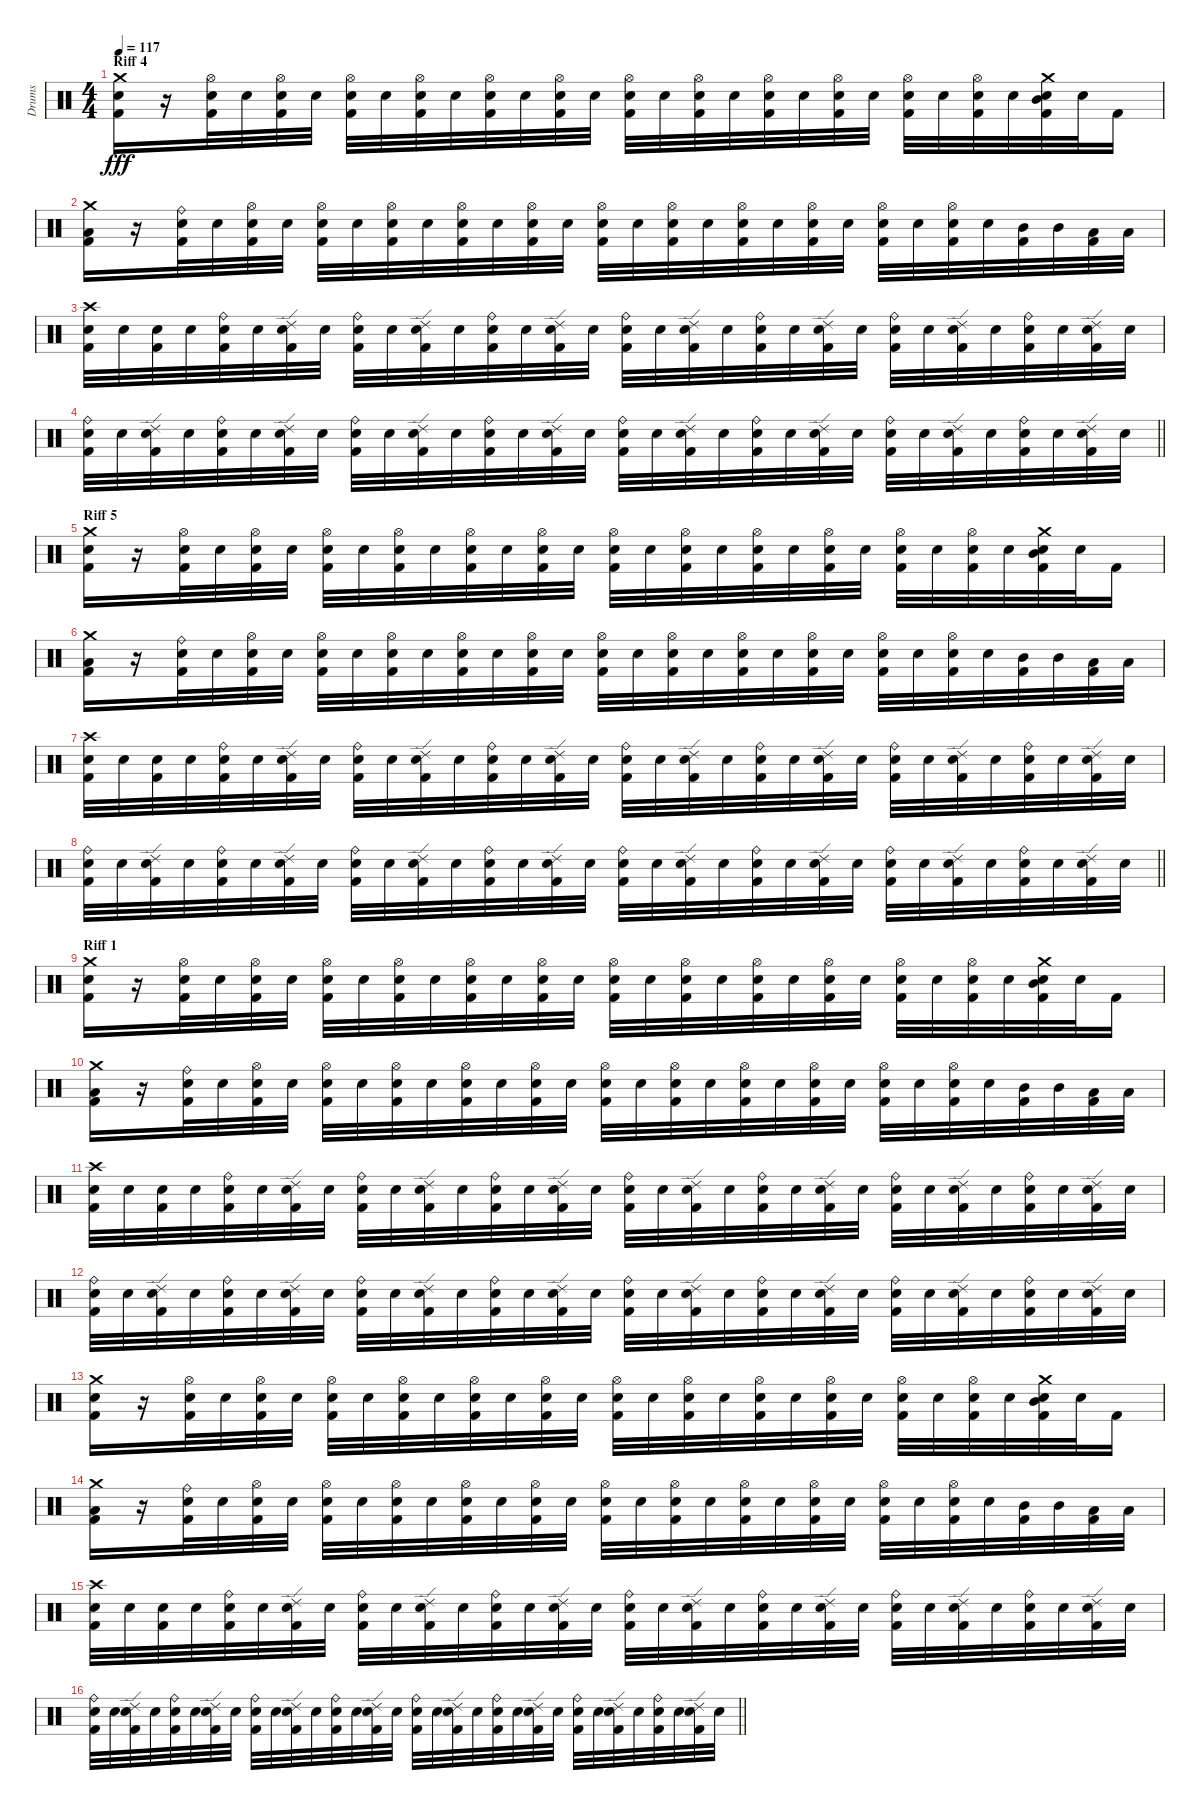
\track ("Drums" "Drums") {instrument percussion}
\staff {score}
\articulation defaults
\ts (4 4)
\section ("" "Riff 4")
\tempo 117
\clef neutral
\ks c
("Kick (hit) 2" "Snare (hit) 2" "Crash medium (hit)").16{dy fff} r.16 ("Kick (hit) 2" "Snare (hit) 2" "Hi-Hat (open)").32 "Snare (hit) 2".32 ("Kick (hit) 2" "Snare (hit) 2" "Hi-Hat (open)").32 "Snare (hit) 2".32 ("Kick (hit) 2" "Snare (hit) 2" "Hi-Hat (open)").32 "Snare (hit) 2".32 ("Kick (hit) 2" "Snare (hit) 2" "Hi-Hat (open)").32 "Snare (hit) 2".32 ("Kick (hit) 2" "Snare (hit) 2" "Hi-Hat (open)").32 "Snare (hit) 2".32 ("Kick (hit) 2" "Snare (hit) 2" "Hi-Hat (open)").32 "Snare (hit) 2".32 ("Kick (hit) 2" "Snare (hit) 2" "Hi-Hat (open)").32 "Snare (hit) 2".32 ("Kick (hit) 2" "Snare (hit) 2" "Hi-Hat (open)").32 "Snare (hit) 2".32 ("Kick (hit) 2" "Snare (hit) 2" "Hi-Hat (open)").32 "Snare (hit) 2".32 ("Kick (hit) 2" "Snare (hit) 2" "Hi-Hat (open)").32 "Snare (hit) 2".32 ("Kick (hit) 2" "Snare (hit) 2" "Hi-Hat (open)").32 "Snare (hit) 2".32 ("Kick (hit) 2" "Snare (hit) 2" "Hi-Hat (open)").32 "Snare (hit) 2".32 ("Kick (hit) 2" "Snare (hit) 2" "Mid Tom (hit)" "Crash medium (hit)").32 "Snare (hit) 2".32 "Kick (hit) 2".16 |
("Kick (hit) 2" "Low Tom (hit)" "Crash medium (hit)").16 r.16 ("Kick (hit) 2" "Snare (hit) 2" "Ride (bell)").32 "Snare (hit) 2".32 ("Kick (hit) 2" "Snare (hit) 2" "Hi-Hat (open)").32 "Snare (hit) 2".32 ("Kick (hit) 2" "Snare (hit) 2" "Hi-Hat (open)").32 "Snare (hit) 2".32 ("Kick (hit) 2" "Snare (hit) 2" "Hi-Hat (open)").32 "Snare (hit) 2".32 ("Kick (hit) 2" "Snare (hit) 2" "Hi-Hat (open)").32 "Snare (hit) 2".32 ("Kick (hit) 2" "Snare (hit) 2" "Hi-Hat (open)").32 "Snare (hit) 2".32 ("Kick (hit) 2" "Snare (hit) 2" "Hi-Hat (open)").32 "Snare (hit) 2".32 ("Kick (hit) 2" "Snare (hit) 2" "Hi-Hat (open)").32 "Snare (hit) 2".32 ("Kick (hit) 2" "Snare (hit) 2" "Hi-Hat (open)").32 "Snare (hit) 2".32 ("Kick (hit) 2" "Snare (hit) 2" "Hi-Hat (open)").32 "Snare (hit) 2".32 ("Kick (hit) 2" "Snare (hit) 2" "Hi-Hat (open)").32 "Snare (hit) 2".32 ("Kick (hit) 2" "Snare (hit) 2" "Hi-Hat (open)").32 "Snare (hit) 2".32 ("Kick (hit) 2" "Mid Tom (hit)").32 "Mid Tom (hit)".32 ("Kick (hit) 2" "Low Tom (hit)").32 "Low Tom (hit)".32 |
("Kick (hit) 2" "Snare (hit) 2" "Crash high (hit)").32 "Snare (hit) 2".32 ("Kick (hit) 2" "Snare (hit) 2").32 "Snare (hit) 2".32 ("Kick (hit) 2" "Snare (hit) 2" "Ride (bell)").32 "Snare (hit) 2".32 ("Kick (hit) 2" "Snare (hit) 2" "Ride (edge) 2").32 "Snare (hit) 2".32 ("Kick (hit) 2" "Snare (hit) 2" "Ride (bell)").32 "Snare (hit) 2".32 ("Kick (hit) 2" "Snare (hit) 2" "Ride (edge) 2").32 "Snare (hit) 2".32 ("Kick (hit) 2" "Snare (hit) 2" "Ride (bell)").32 "Snare (hit) 2".32 ("Kick (hit) 2" "Snare (hit) 2" "Ride (edge) 2").32 "Snare (hit) 2".32 ("Kick (hit) 2" "Snare (hit) 2" "Ride (bell)").32 "Snare (hit) 2".32 ("Kick (hit) 2" "Snare (hit) 2" "Ride (edge) 2").32 "Snare (hit) 2".32 ("Kick (hit) 2" "Snare (hit) 2" "Ride (bell)").32 "Snare (hit) 2".32 ("Kick (hit) 2" "Snare (hit) 2" "Ride (edge) 2").32 "Snare (hit) 2".32 ("Kick (hit) 2" "Snare (hit) 2" "Ride (bell)").32 "Snare (hit) 2".32 ("Kick (hit) 2" "Snare (hit) 2" "Ride (edge) 2").32 "Snare (hit) 2".32 ("Kick (hit) 2" "Snare (hit) 2" "Ride (bell)").32 "Snare (hit) 2".32 ("Kick (hit) 2" "Snare (hit) 2" "Ride (edge) 2").32 "Snare (hit) 2".32 |
\barLineRight lightlight
("Kick (hit) 2" "Snare (hit) 2" "Ride (bell)").32 "Snare (hit) 2".32 ("Kick (hit) 2" "Snare (hit) 2" "Ride (edge) 2").32 "Snare (hit) 2".32 ("Kick (hit) 2" "Snare (hit) 2" "Ride (bell)").32 "Snare (hit) 2".32 ("Kick (hit) 2" "Snare (hit) 2" "Ride (edge) 2").32 "Snare (hit) 2".32 ("Kick (hit) 2" "Snare (hit) 2" "Ride (bell)").32 "Snare (hit) 2".32 ("Kick (hit) 2" "Snare (hit) 2" "Ride (edge) 2").32 "Snare (hit) 2".32 ("Kick (hit) 2" "Snare (hit) 2" "Ride (bell)").32 "Snare (hit) 2".32 ("Kick (hit) 2" "Snare (hit) 2" "Ride (edge) 2").32 "Snare (hit) 2".32 ("Kick (hit) 2" "Snare (hit) 2" "Ride (bell)").32 "Snare (hit) 2".32 ("Kick (hit) 2" "Snare (hit) 2" "Ride (edge) 2").32 "Snare (hit) 2".32 ("Kick (hit) 2" "Snare (hit) 2" "Ride (bell)").32 "Snare (hit) 2".32 ("Kick (hit) 2" "Snare (hit) 2" "Ride (edge) 2").32 "Snare (hit) 2".32 ("Kick (hit) 2" "Snare (hit) 2" "Ride (bell)").32 "Snare (hit) 2".32 ("Kick (hit) 2" "Snare (hit) 2" "Ride (edge) 2").32 "Snare (hit) 2".32 ("Kick (hit) 2" "Snare (hit) 2" "Ride (bell)").32 "Snare (hit) 2".32 ("Kick (hit) 2" "Snare (hit) 2" "Ride (edge) 2").32 "Snare (hit) 2".32 |
\section ("" "Riff 5")
("Kick (hit) 2" "Snare (hit) 2" "Crash medium (hit)").16 r.16 ("Kick (hit) 2" "Snare (hit) 2" "Hi-Hat (open)").32 "Snare (hit) 2".32 ("Kick (hit) 2" "Snare (hit) 2" "Hi-Hat (open)").32 "Snare (hit) 2".32 ("Kick (hit) 2" "Snare (hit) 2" "Hi-Hat (open)").32 "Snare (hit) 2".32 ("Kick (hit) 2" "Snare (hit) 2" "Hi-Hat (open)").32 "Snare (hit) 2".32 ("Kick (hit) 2" "Snare (hit) 2" "Hi-Hat (open)").32 "Snare (hit) 2".32 ("Kick (hit) 2" "Snare (hit) 2" "Hi-Hat (open)").32 "Snare (hit) 2".32 ("Kick (hit) 2" "Snare (hit) 2" "Hi-Hat (open)").32 "Snare (hit) 2".32 ("Kick (hit) 2" "Snare (hit) 2" "Hi-Hat (open)").32 "Snare (hit) 2".32 ("Kick (hit) 2" "Snare (hit) 2" "Hi-Hat (open)").32 "Snare (hit) 2".32 ("Kick (hit) 2" "Snare (hit) 2" "Hi-Hat (open)").32 "Snare (hit) 2".32 ("Kick (hit) 2" "Snare (hit) 2" "Hi-Hat (open)").32 "Snare (hit) 2".32 ("Kick (hit) 2" "Snare (hit) 2" "Hi-Hat (open)").32 "Snare (hit) 2".32 ("Kick (hit) 2" "Snare (hit) 2" "Mid Tom (hit)" "Crash medium (hit)").32 "Snare (hit) 2".32 "Kick (hit) 2".16 |
("Kick (hit) 2" "Low Tom (hit)" "Crash medium (hit)").16 r.16 ("Kick (hit) 2" "Snare (hit) 2" "Ride (bell)").32 "Snare (hit) 2".32 ("Kick (hit) 2" "Snare (hit) 2" "Hi-Hat (open)").32 "Snare (hit) 2".32 ("Kick (hit) 2" "Snare (hit) 2" "Hi-Hat (open)").32 "Snare (hit) 2".32 ("Kick (hit) 2" "Snare (hit) 2" "Hi-Hat (open)").32 "Snare (hit) 2".32 ("Kick (hit) 2" "Snare (hit) 2" "Hi-Hat (open)").32 "Snare (hit) 2".32 ("Kick (hit) 2" "Snare (hit) 2" "Hi-Hat (open)").32 "Snare (hit) 2".32 ("Kick (hit) 2" "Snare (hit) 2" "Hi-Hat (open)").32 "Snare (hit) 2".32 ("Kick (hit) 2" "Snare (hit) 2" "Hi-Hat (open)").32 "Snare (hit) 2".32 ("Kick (hit) 2" "Snare (hit) 2" "Hi-Hat (open)").32 "Snare (hit) 2".32 ("Kick (hit) 2" "Snare (hit) 2" "Hi-Hat (open)").32 "Snare (hit) 2".32 ("Kick (hit) 2" "Snare (hit) 2" "Hi-Hat (open)").32 "Snare (hit) 2".32 ("Kick (hit) 2" "Snare (hit) 2" "Hi-Hat (open)").32 "Snare (hit) 2".32 ("Kick (hit) 2" "Mid Tom (hit)").32 "Mid Tom (hit)".32 ("Kick (hit) 2" "Low Tom (hit)").32 "Low Tom (hit)".32 |
("Kick (hit) 2" "Snare (hit) 2" "Crash high (hit)").32 "Snare (hit) 2".32 ("Kick (hit) 2" "Snare (hit) 2").32 "Snare (hit) 2".32 ("Kick (hit) 2" "Snare (hit) 2" "Ride (bell)").32 "Snare (hit) 2".32 ("Kick (hit) 2" "Snare (hit) 2" "Ride (edge) 2").32 "Snare (hit) 2".32 ("Kick (hit) 2" "Snare (hit) 2" "Ride (bell)").32 "Snare (hit) 2".32 ("Kick (hit) 2" "Snare (hit) 2" "Ride (edge) 2").32 "Snare (hit) 2".32 ("Kick (hit) 2" "Snare (hit) 2" "Ride (bell)").32 "Snare (hit) 2".32 ("Kick (hit) 2" "Snare (hit) 2" "Ride (edge) 2").32 "Snare (hit) 2".32 ("Kick (hit) 2" "Snare (hit) 2" "Ride (bell)").32 "Snare (hit) 2".32 ("Kick (hit) 2" "Snare (hit) 2" "Ride (edge) 2").32 "Snare (hit) 2".32 ("Kick (hit) 2" "Snare (hit) 2" "Ride (bell)").32 "Snare (hit) 2".32 ("Kick (hit) 2" "Snare (hit) 2" "Ride (edge) 2").32 "Snare (hit) 2".32 ("Kick (hit) 2" "Snare (hit) 2" "Ride (bell)").32 "Snare (hit) 2".32 ("Kick (hit) 2" "Snare (hit) 2" "Ride (edge) 2").32 "Snare (hit) 2".32 ("Kick (hit) 2" "Snare (hit) 2" "Ride (bell)").32 "Snare (hit) 2".32 ("Kick (hit) 2" "Snare (hit) 2" "Ride (edge) 2").32 "Snare (hit) 2".32 |
\barLineRight lightlight
("Kick (hit) 2" "Snare (hit) 2" "Ride (bell)").32 "Snare (hit) 2".32 ("Kick (hit) 2" "Snare (hit) 2" "Ride (edge) 2").32 "Snare (hit) 2".32 ("Kick (hit) 2" "Snare (hit) 2" "Ride (bell)").32 "Snare (hit) 2".32 ("Kick (hit) 2" "Snare (hit) 2" "Ride (edge) 2").32 "Snare (hit) 2".32 ("Kick (hit) 2" "Snare (hit) 2" "Ride (bell)").32 "Snare (hit) 2".32 ("Kick (hit) 2" "Snare (hit) 2" "Ride (edge) 2").32 "Snare (hit) 2".32 ("Kick (hit) 2" "Snare (hit) 2" "Ride (bell)").32 "Snare (hit) 2".32 ("Kick (hit) 2" "Snare (hit) 2" "Ride (edge) 2").32 "Snare (hit) 2".32 ("Kick (hit) 2" "Snare (hit) 2" "Ride (bell)").32 "Snare (hit) 2".32 ("Kick (hit) 2" "Snare (hit) 2" "Ride (edge) 2").32 "Snare (hit) 2".32 ("Kick (hit) 2" "Snare (hit) 2" "Ride (bell)").32 "Snare (hit) 2".32 ("Kick (hit) 2" "Snare (hit) 2" "Ride (edge) 2").32 "Snare (hit) 2".32 ("Kick (hit) 2" "Snare (hit) 2" "Ride (bell)").32 "Snare (hit) 2".32 ("Kick (hit) 2" "Snare (hit) 2" "Ride (edge) 2").32 "Snare (hit) 2".32 ("Kick (hit) 2" "Snare (hit) 2" "Ride (bell)").32 "Snare (hit) 2".32 ("Kick (hit) 2" "Snare (hit) 2" "Ride (edge) 2").32 "Snare (hit) 2".32 |
\section ("" "Riff 1")
("Kick (hit) 2" "Snare (hit) 2" "Crash medium (hit)").16 r.16 ("Kick (hit) 2" "Snare (hit) 2" "Hi-Hat (open)").32 "Snare (hit) 2".32 ("Kick (hit) 2" "Snare (hit) 2" "Hi-Hat (open)").32 "Snare (hit) 2".32 ("Kick (hit) 2" "Snare (hit) 2" "Hi-Hat (open)").32 "Snare (hit) 2".32 ("Kick (hit) 2" "Snare (hit) 2" "Hi-Hat (open)").32 "Snare (hit) 2".32 ("Kick (hit) 2" "Snare (hit) 2" "Hi-Hat (open)").32 "Snare (hit) 2".32 ("Kick (hit) 2" "Snare (hit) 2" "Hi-Hat (open)").32 "Snare (hit) 2".32 ("Kick (hit) 2" "Snare (hit) 2" "Hi-Hat (open)").32 "Snare (hit) 2".32 ("Kick (hit) 2" "Snare (hit) 2" "Hi-Hat (open)").32 "Snare (hit) 2".32 ("Kick (hit) 2" "Snare (hit) 2" "Hi-Hat (open)").32 "Snare (hit) 2".32 ("Kick (hit) 2" "Snare (hit) 2" "Hi-Hat (open)").32 "Snare (hit) 2".32 ("Kick (hit) 2" "Snare (hit) 2" "Hi-Hat (open)").32 "Snare (hit) 2".32 ("Kick (hit) 2" "Snare (hit) 2" "Hi-Hat (open)").32 "Snare (hit) 2".32 ("Kick (hit) 2" "Snare (hit) 2" "Mid Tom (hit)" "Crash medium (hit)").32 "Snare (hit) 2".32 "Kick (hit) 2".16 |
("Kick (hit) 2" "Low Tom (hit)" "Crash medium (hit)").16 r.16 ("Kick (hit) 2" "Snare (hit) 2" "Ride (bell)").32 "Snare (hit) 2".32 ("Kick (hit) 2" "Snare (hit) 2" "Hi-Hat (open)").32 "Snare (hit) 2".32 ("Kick (hit) 2" "Snare (hit) 2" "Hi-Hat (open)").32 "Snare (hit) 2".32 ("Kick (hit) 2" "Snare (hit) 2" "Hi-Hat (open)").32 "Snare (hit) 2".32 ("Kick (hit) 2" "Snare (hit) 2" "Hi-Hat (open)").32 "Snare (hit) 2".32 ("Kick (hit) 2" "Snare (hit) 2" "Hi-Hat (open)").32 "Snare (hit) 2".32 ("Kick (hit) 2" "Snare (hit) 2" "Hi-Hat (open)").32 "Snare (hit) 2".32 ("Kick (hit) 2" "Snare (hit) 2" "Hi-Hat (open)").32 "Snare (hit) 2".32 ("Kick (hit) 2" "Snare (hit) 2" "Hi-Hat (open)").32 "Snare (hit) 2".32 ("Kick (hit) 2" "Snare (hit) 2" "Hi-Hat (open)").32 "Snare (hit) 2".32 ("Kick (hit) 2" "Snare (hit) 2" "Hi-Hat (open)").32 "Snare (hit) 2".32 ("Kick (hit) 2" "Snare (hit) 2" "Hi-Hat (open)").32 "Snare (hit) 2".32 ("Kick (hit) 2" "Mid Tom (hit)").32 "Mid Tom (hit)".32 ("Kick (hit) 2" "Low Tom (hit)").32 "Low Tom (hit)".32 |
("Kick (hit) 2" "Snare (hit) 2" "Crash high (hit)").32 "Snare (hit) 2".32 ("Kick (hit) 2" "Snare (hit) 2").32 "Snare (hit) 2".32 ("Kick (hit) 2" "Snare (hit) 2" "Ride (bell)").32 "Snare (hit) 2".32 ("Kick (hit) 2" "Snare (hit) 2" "Ride (edge) 2").32 "Snare (hit) 2".32 ("Kick (hit) 2" "Snare (hit) 2" "Ride (bell)").32 "Snare (hit) 2".32 ("Kick (hit) 2" "Snare (hit) 2" "Ride (edge) 2").32 "Snare (hit) 2".32 ("Kick (hit) 2" "Snare (hit) 2" "Ride (bell)").32 "Snare (hit) 2".32 ("Kick (hit) 2" "Snare (hit) 2" "Ride (edge) 2").32 "Snare (hit) 2".32 ("Kick (hit) 2" "Snare (hit) 2" "Ride (bell)").32 "Snare (hit) 2".32 ("Kick (hit) 2" "Snare (hit) 2" "Ride (edge) 2").32 "Snare (hit) 2".32 ("Kick (hit) 2" "Snare (hit) 2" "Ride (bell)").32 "Snare (hit) 2".32 ("Kick (hit) 2" "Snare (hit) 2" "Ride (edge) 2").32 "Snare (hit) 2".32 ("Kick (hit) 2" "Snare (hit) 2" "Ride (bell)").32 "Snare (hit) 2".32 ("Kick (hit) 2" "Snare (hit) 2" "Ride (edge) 2").32 "Snare (hit) 2".32 ("Kick (hit) 2" "Snare (hit) 2" "Ride (bell)").32 "Snare (hit) 2".32 ("Kick (hit) 2" "Snare (hit) 2" "Ride (edge) 2").32 "Snare (hit) 2".32 |
("Kick (hit) 2" "Snare (hit) 2" "Ride (bell)").32 "Snare (hit) 2".32 ("Kick (hit) 2" "Snare (hit) 2" "Ride (edge) 2").32 "Snare (hit) 2".32 ("Kick (hit) 2" "Snare (hit) 2" "Ride (bell)").32 "Snare (hit) 2".32 ("Kick (hit) 2" "Snare (hit) 2" "Ride (edge) 2").32 "Snare (hit) 2".32 ("Kick (hit) 2" "Snare (hit) 2" "Ride (bell)").32 "Snare (hit) 2".32 ("Kick (hit) 2" "Snare (hit) 2" "Ride (edge) 2").32 "Snare (hit) 2".32 ("Kick (hit) 2" "Snare (hit) 2" "Ride (bell)").32 "Snare (hit) 2".32 ("Kick (hit) 2" "Snare (hit) 2" "Ride (edge) 2").32 "Snare (hit) 2".32 ("Kick (hit) 2" "Snare (hit) 2" "Ride (bell)").32 "Snare (hit) 2".32 ("Kick (hit) 2" "Snare (hit) 2" "Ride (edge) 2").32 "Snare (hit) 2".32 ("Kick (hit) 2" "Snare (hit) 2" "Ride (bell)").32 "Snare (hit) 2".32 ("Kick (hit) 2" "Snare (hit) 2" "Ride (edge) 2").32 "Snare (hit) 2".32 ("Kick (hit) 2" "Snare (hit) 2" "Ride (bell)").32 "Snare (hit) 2".32 ("Kick (hit) 2" "Snare (hit) 2" "Ride (edge) 2").32 "Snare (hit) 2".32 ("Kick (hit) 2" "Snare (hit) 2" "Ride (bell)").32 "Snare (hit) 2".32 ("Kick (hit) 2" "Snare (hit) 2" "Ride (edge) 2").32 "Snare (hit) 2".32 |
("Kick (hit) 2" "Snare (hit) 2" "Crash medium (hit)").16 r.16 ("Kick (hit) 2" "Snare (hit) 2" "Hi-Hat (open)").32 "Snare (hit) 2".32 ("Kick (hit) 2" "Snare (hit) 2" "Hi-Hat (open)").32 "Snare (hit) 2".32 ("Kick (hit) 2" "Snare (hit) 2" "Hi-Hat (open)").32 "Snare (hit) 2".32 ("Kick (hit) 2" "Snare (hit) 2" "Hi-Hat (open)").32 "Snare (hit) 2".32 ("Kick (hit) 2" "Snare (hit) 2" "Hi-Hat (open)").32 "Snare (hit) 2".32 ("Kick (hit) 2" "Snare (hit) 2" "Hi-Hat (open)").32 "Snare (hit) 2".32 ("Kick (hit) 2" "Snare (hit) 2" "Hi-Hat (open)").32 "Snare (hit) 2".32 ("Kick (hit) 2" "Snare (hit) 2" "Hi-Hat (open)").32 "Snare (hit) 2".32 ("Kick (hit) 2" "Snare (hit) 2" "Hi-Hat (open)").32 "Snare (hit) 2".32 ("Kick (hit) 2" "Snare (hit) 2" "Hi-Hat (open)").32 "Snare (hit) 2".32 ("Kick (hit) 2" "Snare (hit) 2" "Hi-Hat (open)").32 "Snare (hit) 2".32 ("Kick (hit) 2" "Snare (hit) 2" "Hi-Hat (open)").32 "Snare (hit) 2".32 ("Kick (hit) 2" "Snare (hit) 2" "Mid Tom (hit)" "Crash medium (hit)").32 "Snare (hit) 2".32 "Kick (hit) 2".16 |
("Kick (hit) 2" "Low Tom (hit)" "Crash medium (hit)").16 r.16 ("Kick (hit) 2" "Snare (hit) 2" "Ride (bell)").32 "Snare (hit) 2".32 ("Kick (hit) 2" "Snare (hit) 2" "Hi-Hat (open)").32 "Snare (hit) 2".32 ("Kick (hit) 2" "Snare (hit) 2" "Hi-Hat (open)").32 "Snare (hit) 2".32 ("Kick (hit) 2" "Snare (hit) 2" "Hi-Hat (open)").32 "Snare (hit) 2".32 ("Kick (hit) 2" "Snare (hit) 2" "Hi-Hat (open)").32 "Snare (hit) 2".32 ("Kick (hit) 2" "Snare (hit) 2" "Hi-Hat (open)").32 "Snare (hit) 2".32 ("Kick (hit) 2" "Snare (hit) 2" "Hi-Hat (open)").32 "Snare (hit) 2".32 ("Kick (hit) 2" "Snare (hit) 2" "Hi-Hat (open)").32 "Snare (hit) 2".32 ("Kick (hit) 2" "Snare (hit) 2" "Hi-Hat (open)").32 "Snare (hit) 2".32 ("Kick (hit) 2" "Snare (hit) 2" "Hi-Hat (open)").32 "Snare (hit) 2".32 ("Kick (hit) 2" "Snare (hit) 2" "Hi-Hat (open)").32 "Snare (hit) 2".32 ("Kick (hit) 2" "Snare (hit) 2" "Hi-Hat (open)").32 "Snare (hit) 2".32 ("Kick (hit) 2" "Mid Tom (hit)").32 "Mid Tom (hit)".32 ("Kick (hit) 2" "Low Tom (hit)").32 "Low Tom (hit)".32 |
("Kick (hit) 2" "Snare (hit) 2" "Crash high (hit)").32 "Snare (hit) 2".32 ("Kick (hit) 2" "Snare (hit) 2").32 "Snare (hit) 2".32 ("Kick (hit) 2" "Snare (hit) 2" "Ride (bell)").32 "Snare (hit) 2".32 ("Kick (hit) 2" "Snare (hit) 2" "Ride (edge) 2").32 "Snare (hit) 2".32 ("Kick (hit) 2" "Snare (hit) 2" "Ride (bell)").32 "Snare (hit) 2".32 ("Kick (hit) 2" "Snare (hit) 2" "Ride (edge) 2").32 "Snare (hit) 2".32 ("Kick (hit) 2" "Snare (hit) 2" "Ride (bell)").32 "Snare (hit) 2".32 ("Kick (hit) 2" "Snare (hit) 2" "Ride (edge) 2").32 "Snare (hit) 2".32 ("Kick (hit) 2" "Snare (hit) 2" "Ride (bell)").32 "Snare (hit) 2".32 ("Kick (hit) 2" "Snare (hit) 2" "Ride (edge) 2").32 "Snare (hit) 2".32 ("Kick (hit) 2" "Snare (hit) 2" "Ride (bell)").32 "Snare (hit) 2".32 ("Kick (hit) 2" "Snare (hit) 2" "Ride (edge) 2").32 "Snare (hit) 2".32 ("Kick (hit) 2" "Snare (hit) 2" "Ride (bell)").32 "Snare (hit) 2".32 ("Kick (hit) 2" "Snare (hit) 2" "Ride (edge) 2").32 "Snare (hit) 2".32 ("Kick (hit) 2" "Snare (hit) 2" "Ride (bell)").32 "Snare (hit) 2".32 ("Kick (hit) 2" "Snare (hit) 2" "Ride (edge) 2").32 "Snare (hit) 2".32 |
\barLineRight lightlight
("Kick (hit) 2" "Snare (hit) 2" "Ride (bell)").32 "Snare (hit) 2".32 ("Kick (hit) 2" "Snare (hit) 2" "Ride (edge) 2").32 "Snare (hit) 2".32 ("Kick (hit) 2" "Snare (hit) 2" "Ride (bell)").32 "Snare (hit) 2".32 ("Kick (hit) 2" "Snare (hit) 2" "Ride (edge) 2").32 "Snare (hit) 2".32 ("Kick (hit) 2" "Snare (hit) 2" "Ride (bell)").32 "Snare (hit) 2".32 ("Kick (hit) 2" "Snare (hit) 2" "Ride (edge) 2").32 "Snare (hit) 2".32 ("Kick (hit) 2" "Snare (hit) 2" "Ride (bell)").32 "Snare (hit) 2".32 ("Kick (hit) 2" "Snare (hit) 2" "Ride (edge) 2").32 "Snare (hit) 2".32 ("Kick (hit) 2" "Snare (hit) 2" "Ride (bell)").32 "Snare (hit) 2".32 ("Kick (hit) 2" "Snare (hit) 2" "Ride (edge) 2").32 "Snare (hit) 2".32 ("Kick (hit) 2" "Snare (hit) 2" "Ride (bell)").32 "Snare (hit) 2".32 ("Kick (hit) 2" "Snare (hit) 2" "Ride (edge) 2").32 "Snare (hit) 2".32 ("Kick (hit) 2" "Snare (hit) 2" "Ride (bell)").32 "Snare (hit) 2".32 ("Kick (hit) 2" "Snare (hit) 2" "Ride (edge) 2").32 "Snare (hit) 2".32 ("Kick (hit) 2" "Snare (hit) 2" "Ride (bell)").32 "Snare (hit) 2".32 ("Kick (hit) 2" "Snare (hit) 2" "Ride (edge) 2").32 "Snare (hit) 2".32
